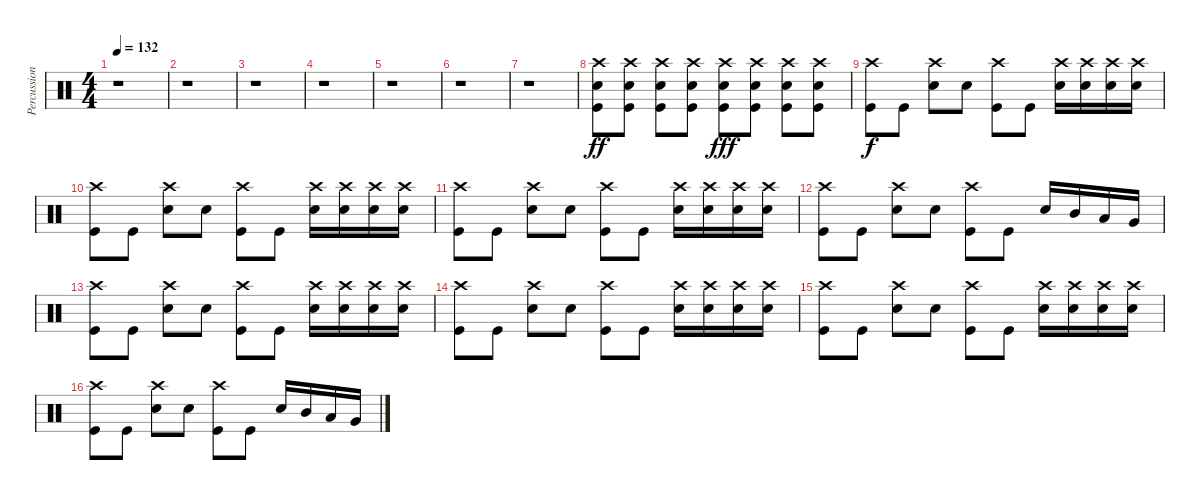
\track ("Percussion" "Percussion") {instrument percussion}
\staff {score}
\articulation defaults
\ts (4 4)
\tempo 132
\clef neutral
\ks c
r.1{dy fff} |
r.1 |
r.1 |
r.1 |
r.1 |
r.1 |
r.1 |
("Kick (hit)" "Electric Snare (hit)" "Crash high (hit)").8{dy ff} ("Kick (hit)" "Electric Snare (hit)" "Crash high (hit)").8 ("Kick (hit)" "Electric Snare (hit)" "Crash high (hit)").8 ("Kick (hit)" "Electric Snare (hit)" "Crash high (hit)").8 ("Kick (hit)" "Electric Snare (hit)" "Crash high (hit)").8{dy fff} ("Kick (hit)" "Electric Snare (hit)" "Crash high (hit)").8 ("Kick (hit)" "Electric Snare (hit)" "Crash high (hit)").8 ("Kick (hit)" "Electric Snare (hit)" "Crash high (hit)").8 |
("Kick (hit)" "Crash high (hit)").8{dy f} "Kick (hit)".8 ("Crash high (hit)" "Electric Snare (hit)").8 "Electric Snare (hit)".8 ("Kick (hit)" "Crash high (hit)").8 "Kick (hit)".8 ("Crash high (hit)" "Electric Snare (hit)").16 ("Crash high (hit)" "Electric Snare (hit)").16 ("Crash high (hit)" "Electric Snare (hit)").16 ("Crash high (hit)" "Electric Snare (hit)").16 |
("Kick (hit)" "Crash high (hit)").8 "Kick (hit)".8 ("Crash high (hit)" "Electric Snare (hit)").8 "Electric Snare (hit)".8 ("Kick (hit)" "Crash high (hit)").8 "Kick (hit)".8 ("Crash high (hit)" "Electric Snare (hit)").16 ("Crash high (hit)" "Electric Snare (hit)").16 ("Crash high (hit)" "Electric Snare (hit)").16 ("Crash high (hit)" "Electric Snare (hit)").16 |
("Kick (hit)" "Crash high (hit)").8 "Kick (hit)".8 ("Crash high (hit)" "Electric Snare (hit)").8 "Electric Snare (hit)".8 ("Kick (hit)" "Crash high (hit)").8 "Kick (hit)".8 ("Crash high (hit)" "Electric Snare (hit)").16 ("Crash high (hit)" "Electric Snare (hit)").16 ("Crash high (hit)" "Electric Snare (hit)").16 ("Crash high (hit)" "Electric Snare (hit)").16 |
("Kick (hit)" "Crash high (hit)").8 "Kick (hit)".8 ("Crash high (hit)" "Electric Snare (hit)").8 "Electric Snare (hit)".8 ("Kick (hit)" "Crash high (hit)").8 "Kick (hit)".8 "Electric Snare (hit)".16 "Mid Tom (hit)".16 "Low Tom (hit)".16 "Very Low Tom (hit)".16 |
("Kick (hit)" "Crash high (hit)").8 "Kick (hit)".8 ("Crash high (hit)" "Electric Snare (hit)").8 "Electric Snare (hit)".8 ("Kick (hit)" "Crash high (hit)").8 "Kick (hit)".8 ("Crash high (hit)" "Electric Snare (hit)").16 ("Crash high (hit)" "Electric Snare (hit)").16 ("Crash high (hit)" "Electric Snare (hit)").16 ("Crash high (hit)" "Electric Snare (hit)").16 |
("Kick (hit)" "Crash high (hit)").8 "Kick (hit)".8 ("Crash high (hit)" "Electric Snare (hit)").8 "Electric Snare (hit)".8 ("Kick (hit)" "Crash high (hit)").8 "Kick (hit)".8 ("Crash high (hit)" "Electric Snare (hit)").16 ("Crash high (hit)" "Electric Snare (hit)").16 ("Crash high (hit)" "Electric Snare (hit)").16 ("Crash high (hit)" "Electric Snare (hit)").16 |
("Kick (hit)" "Crash high (hit)").8 "Kick (hit)".8 ("Crash high (hit)" "Electric Snare (hit)").8 "Electric Snare (hit)".8 ("Kick (hit)" "Crash high (hit)").8 "Kick (hit)".8 ("Crash high (hit)" "Electric Snare (hit)").16 ("Crash high (hit)" "Electric Snare (hit)").16 ("Crash high (hit)" "Electric Snare (hit)").16 ("Crash high (hit)" "Electric Snare (hit)").16 |
("Kick (hit)" "Crash high (hit)").8 "Kick (hit)".8 ("Crash high (hit)" "Electric Snare (hit)").8 "Electric Snare (hit)".8 ("Kick (hit)" "Crash high (hit)").8 "Kick (hit)".8 "Electric Snare (hit)".16 "Mid Tom (hit)".16 "Low Tom (hit)".16 "Very Low Tom (hit)".16
